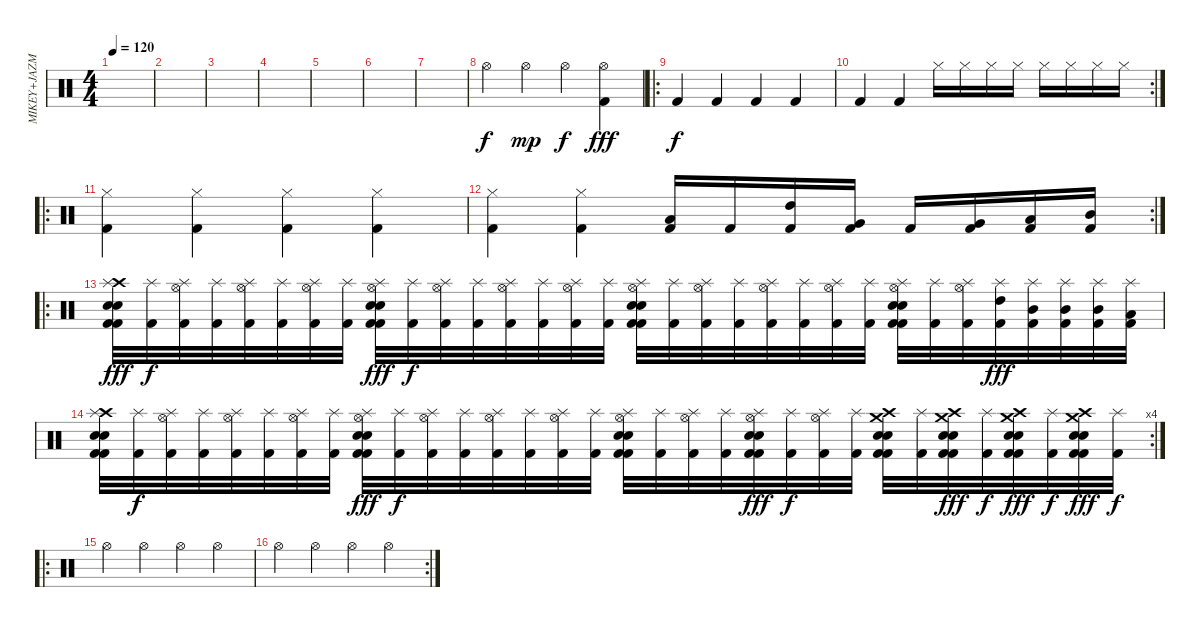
\track ("MIKEY+JAZMO" "MIKEY+JAZM") {instrument percussion}
\staff {score}
\articulation defaults
\ts (4 4)
\tempo 120
\clef neutral
\ks c
|
|
|
|
|
|
|
"Hi-Hat (open)".4 "Hi-Hat (open)".4{dy mp} "Hi-Hat (open)".4{dy f} ("Kick (hit) 2" "Hi-Hat (open)").4{dy fff} |
\ro "Kick (hit) 2".4{dy f} "Kick (hit) 2".4 "Kick (hit) 2".4 "Kick (hit) 2".4
|
\rc 2 "Kick (hit) 2".4 "Kick (hit) 2".4 "Hi-Hat (closed)".16 "Hi-Hat (closed)".16 "Hi-Hat (closed)".16 "Hi-Hat (closed)".16 "Hi-Hat (closed)".16 "Hi-Hat (closed)".16 "Hi-Hat (closed)".16 "Hi-Hat (closed)".16
|
\ro
("Hi-Hat (closed)" "Kick (hit) 2").4 ("Hi-Hat (closed)" "Kick (hit) 2").4 ("Hi-Hat (closed)" "Kick (hit) 2").4 ("Hi-Hat (closed)" "Kick (hit) 2").4 |
\rc 2
("Hi-Hat (closed)" "Kick (hit) 2").4 ("Hi-Hat (closed)" "Kick (hit) 2").4 ("Low Tom (hit)" "Kick (hit) 2").16 "Kick (hit) 2".16 ("High Tom (hit)" "Kick (hit) 2").16 ("Very Low Tom (hit)" "Kick (hit) 2").16 "Kick (hit) 2".16 ("Very Low Tom (hit)" "Kick (hit) 2").16 ("Low Tom (hit)" "Kick (hit) 2").16 ("Mid Tom (hit)" "Kick (hit) 2").16 |
\ro
("Crash high (hit)" "Splash (hit)" "Electric Snare (hit)" "Electric Snare (hit)" "Kick (hit) 2" "Kick (hit) 2").32{dy fff} ("Splash (hit)" "Kick (hit) 2").32{dy f} ("Hi-Hat (open)" "Splash (hit)" "Kick (hit) 2").32 ("Splash (hit)" "Kick (hit) 2").32 ("Hi-Hat (open)" "Splash (hit)" "Kick (hit) 2").32 ("Splash (hit)" "Kick (hit) 2").32 ("Hi-Hat (open)" "Splash (hit)" "Kick (hit) 2").32 ("Splash (hit)" "Kick (hit) 2").32 ("Hi-Hat (open)" "Splash (hit)" "Electric Snare (hit)" "Electric Snare (hit)" "Kick (hit) 2" "Kick (hit) 2").32{dy fff} ("Splash (hit)" "Kick (hit) 2").32{dy f} ("Hi-Hat (open)" "Splash (hit)" "Kick (hit) 2").32 ("Splash (hit)" "Kick (hit) 2").32 ("Hi-Hat (open)" "Splash (hit)" "Kick (hit) 2").32 ("Splash (hit)" "Kick (hit) 2").32 ("Hi-Hat (open)" "Splash (hit)" "Kick (hit) 2").32 ("Splash (hit)" "Kick (hit) 2").32 ("Hi-Hat (open)" "Splash (hit)" "Electric Snare (hit)" "Electric Snare (hit)" "Kick (hit) 2" "Kick (hit) 2").32 ("Splash (hit)" "Kick (hit) 2").32 ("Hi-Hat (open)" "Splash (hit)" "Kick (hit) 2").32 ("Splash (hit)" "Kick (hit) 2").32 ("Hi-Hat (open)" "Splash (hit)" "Kick (hit) 2").32 ("Splash (hit)" "Kick (hit) 2").32 ("Hi-Hat (open)" "Splash (hit)" "Kick (hit) 2").32 ("Splash (hit)" "Kick (hit) 2").32 ("Hi-Hat (open)" "Splash (hit)" "Electric Snare (hit)" "Electric Snare (hit)" "Kick (hit) 2" "Kick (hit) 2").32 ("Splash (hit)" "Kick (hit) 2").32 ("Hi-Hat (open)" "Splash (hit)" "Kick (hit) 2").32 ("High Tom (hit)" "Splash (hit)" "Kick (hit) 2").32{dy fff} ("Mid Tom (hit)" "Splash (hit)" "Kick (hit) 2").32 ("Mid Tom (hit)" "Splash (hit)" "Kick (hit) 2").32 ("Mid Tom (hit)" "Splash (hit)" "Kick (hit) 2").32 ("Low Tom (hit)" "Splash (hit)" "Kick (hit) 2").32 |
\rc 4
("Crash high (hit)" "Splash (hit)" "Electric Snare (hit)" "Electric Snare (hit)" "Kick (hit) 2" "Kick (hit) 2").32 ("Splash (hit)" "Kick (hit) 2").32{dy f} ("Hi-Hat (open)" "Splash (hit)" "Kick (hit) 2").32 ("Splash (hit)" "Kick (hit) 2").32 ("Hi-Hat (open)" "Splash (hit)" "Kick (hit) 2").32 ("Splash (hit)" "Kick (hit) 2").32 ("Hi-Hat (open)" "Splash (hit)" "Kick (hit) 2").32 ("Splash (hit)" "Kick (hit) 2").32 ("Hi-Hat (open)" "Splash (hit)" "Electric Snare (hit)" "Electric Snare (hit)" "Kick (hit) 2" "Kick (hit) 2").32{dy fff} ("Splash (hit)" "Kick (hit) 2").32{dy f} ("Hi-Hat (open)" "Splash (hit)" "Kick (hit) 2").32 ("Splash (hit)" "Kick (hit) 2").32 ("Hi-Hat (open)" "Splash (hit)" "Kick (hit) 2").32 ("Splash (hit)" "Kick (hit) 2").32 ("Hi-Hat (open)" "Splash (hit)" "Kick (hit) 2").32 ("Splash (hit)" "Kick (hit) 2").32 ("Hi-Hat (open)" "Splash (hit)" "Electric Snare (hit)" "Electric Snare (hit)" "Kick (hit) 2" "Kick (hit) 2").32 ("Splash (hit)" "Kick (hit) 2").32 ("Hi-Hat (open)" "Splash (hit)" "Kick (hit) 2").32 ("Splash (hit)" "Kick (hit) 2").32 ("Hi-Hat (open)" "Splash (hit)" "Electric Snare (hit)" "Electric Snare (hit)" "Kick (hit) 2" "Kick (hit) 2").32{dy fff} ("Splash (hit)" "Kick (hit) 2").32{dy f} ("Hi-Hat (open)" "Splash (hit)" "Kick (hit) 2").32 ("Splash (hit)" "Kick (hit) 2").32 ("Crash medium (hit)" "Crash high (hit)" "Electric Snare (hit)" "Electric Snare (hit)" "Kick (hit) 2" "Kick (hit) 2").32 ("Splash (hit)" "Kick (hit) 2").32 ("Crash medium (hit)" "Crash high (hit)" "Electric Snare (hit)" "Electric Snare (hit)" "Kick (hit) 2" "Kick (hit) 2").32{dy fff} ("Splash (hit)" "Kick (hit) 2").32{dy f} ("Crash medium (hit)" "Crash high (hit)" "Electric Snare (hit)" "Electric Snare (hit)" "Kick (hit) 2" "Kick (hit) 2").32{dy fff} ("Splash (hit)" "Kick (hit) 2").32{dy f} ("Crash medium (hit)" "Crash high (hit)" "Electric Snare (hit)" "Electric Snare (hit)" "Kick (hit) 2" "Kick (hit) 2").32{dy fff} ("Splash (hit)" "Kick (hit) 2").32{dy f} |
\ro "Hi-Hat (open)".4 "Hi-Hat (open)".4 "Hi-Hat (open)".4 "Hi-Hat (open)".4
|
\rc 2 "Hi-Hat (open)".4 "Hi-Hat (open)".4 "Hi-Hat (open)".4 "Hi-Hat (open)".4
